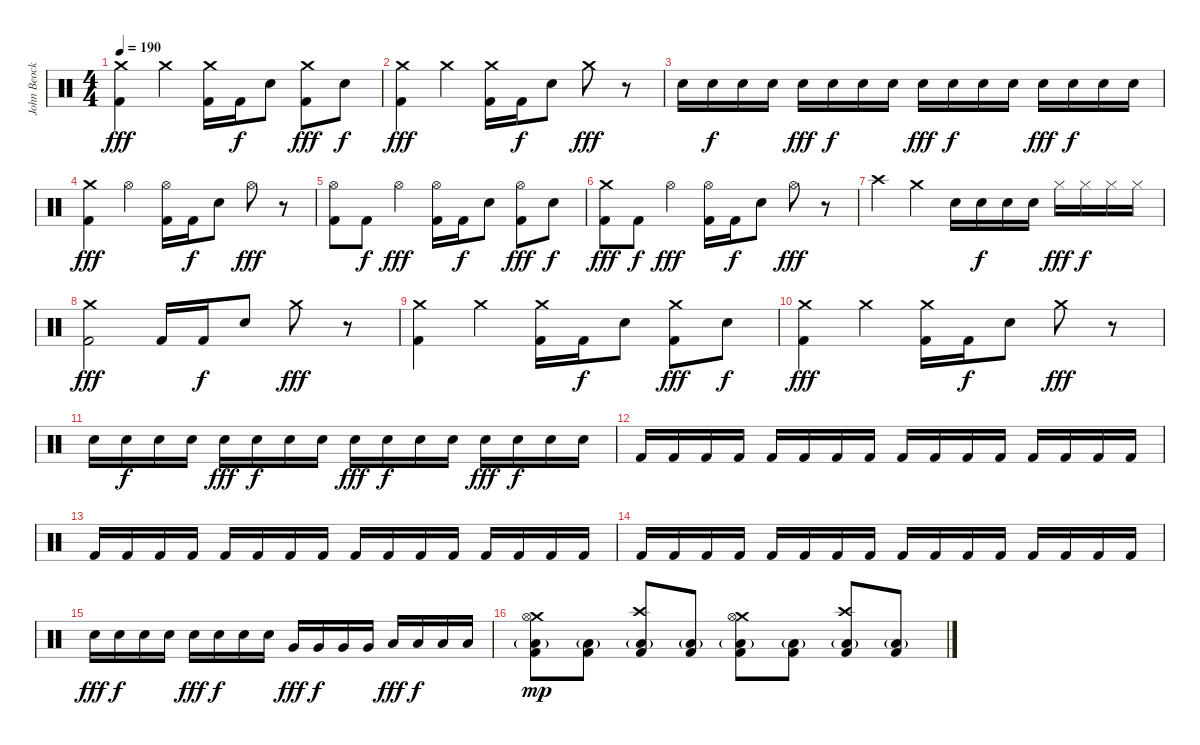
\track ("John Beocklin (Drums)" "John Beock") {instrument percussion}
\staff {score}
\articulation defaults
\ts (4 4)
\tempo 190
\clef neutral
\ks c
("Crash medium (hit)" "Kick (hit) 2").4{dy fff} "Crash medium (hit)".4 ("Crash medium (hit)" "Kick (hit) 2").16 "Kick (hit) 2".16{dy f} "Snare (hit) 2".8 ("Crash medium (hit)" "Kick (hit) 2").8{dy fff} "Snare (hit) 2".8{dy f} |
("Crash medium (hit)" "Kick (hit) 2").4{dy fff} "Crash medium (hit)".4 ("Crash medium (hit)" "Kick (hit) 2").16 "Kick (hit) 2".16{dy f} "Snare (hit) 2".8 "Crash medium (hit)".8{dy fff} r.8 |
"Snare (hit) 2".16 "Snare (hit) 2".16{dy f} "Snare (hit) 2".16 "Snare (hit) 2".16 "Snare (hit) 2".16{dy fff} "Snare (hit) 2".16{dy f} "Snare (hit) 2".16 "Snare (hit) 2".16 "Snare (hit) 2".16{dy fff} "Snare (hit) 2".16{dy f} "Snare (hit) 2".16 "Snare (hit) 2".16 "Snare (hit) 2".16{dy fff} "Snare (hit) 2".16{dy f} "Snare (hit) 2".16 "Snare (hit) 2".16 |
("Crash medium (hit)" "Kick (hit) 2").4{dy fff} "Hi-Hat (open)".4 ("Hi-Hat (open)" "Kick (hit) 2").16 "Kick (hit) 2".16{dy f} "Snare (hit) 2".8 "Hi-Hat (open)".8{dy fff} r.8 |
("Hi-Hat (open)" "Kick (hit) 2").8 "Kick (hit) 2".8{dy f} "Hi-Hat (open)".4{dy fff} ("Hi-Hat (open)" "Kick (hit) 2").16 "Kick (hit) 2".16{dy f} "Snare (hit) 2".8 ("Hi-Hat (open)" "Kick (hit) 2").8{dy fff} "Snare (hit) 2".8{dy f} |
("Crash medium (hit)" "Kick (hit) 2").8{dy fff} "Kick (hit) 2".8{dy f} "Hi-Hat (open)".4{dy fff} ("Hi-Hat (open)" "Kick (hit) 2").16 "Kick (hit) 2".16{dy f} "Snare (hit) 2".8 "Hi-Hat (open)".8{dy fff} r.8 |
"Crash high (hit)".4 "Crash medium (hit)".4 "Snare (hit) 2".16 "Snare (hit) 2".16{dy f} "Snare (hit) 2".16 "Snare (hit) 2".16 "Hi-Hat (closed)".16{dy fff} "Hi-Hat (closed)".16{dy f} "Hi-Hat (closed)".16 "Hi-Hat (closed)".16 |
("Crash medium (hit)" "Kick (hit) 2").2{dy fff} "Kick (hit) 2".16 "Kick (hit) 2".16{dy f} "Snare (hit) 2".8 "Crash medium (hit)".8{dy fff} r.8 |
("Crash medium (hit)" "Kick (hit) 2").4 "Crash medium (hit)".4 ("Crash medium (hit)" "Kick (hit) 2").16 "Kick (hit) 2".16{dy f} "Snare (hit) 2".8 ("Crash medium (hit)" "Kick (hit) 2").8{dy fff} "Snare (hit) 2".8{dy f} |
("Crash medium (hit)" "Kick (hit) 2").4{dy fff} "Crash medium (hit)".4 ("Crash medium (hit)" "Kick (hit) 2").16 "Kick (hit) 2".16{dy f} "Snare (hit) 2".8 "Crash medium (hit)".8{dy fff} r.8 |
"Snare (hit) 2".16 "Snare (hit) 2".16{dy f} "Snare (hit) 2".16 "Snare (hit) 2".16 "Snare (hit) 2".16{dy fff} "Snare (hit) 2".16{dy f} "Snare (hit) 2".16 "Snare (hit) 2".16 "Snare (hit) 2".16{dy fff} "Snare (hit) 2".16{dy f} "Snare (hit) 2".16 "Snare (hit) 2".16 "Snare (hit) 2".16{dy fff} "Snare (hit) 2".16{dy f} "Snare (hit) 2".16 "Snare (hit) 2".16 |
"Kick (hit) 2".16 "Kick (hit) 2".16 "Kick (hit) 2".16 "Kick (hit) 2".16 "Kick (hit) 2".16 "Kick (hit) 2".16 "Kick (hit) 2".16 "Kick (hit) 2".16 "Kick (hit) 2".16 "Kick (hit) 2".16 "Kick (hit) 2".16 "Kick (hit) 2".16 "Kick (hit) 2".16 "Kick (hit) 2".16 "Kick (hit) 2".16 "Kick (hit) 2".16 |
"Kick (hit) 2".16 "Kick (hit) 2".16 "Kick (hit) 2".16 "Kick (hit) 2".16 "Kick (hit) 2".16 "Kick (hit) 2".16 "Kick (hit) 2".16 "Kick (hit) 2".16 "Kick (hit) 2".16 "Kick (hit) 2".16 "Kick (hit) 2".16 "Kick (hit) 2".16 "Kick (hit) 2".16 "Kick (hit) 2".16 "Kick (hit) 2".16 "Kick (hit) 2".16 |
"Kick (hit) 2".16 "Kick (hit) 2".16 "Kick (hit) 2".16 "Kick (hit) 2".16 "Kick (hit) 2".16 "Kick (hit) 2".16 "Kick (hit) 2".16 "Kick (hit) 2".16 "Kick (hit) 2".16 "Kick (hit) 2".16 "Kick (hit) 2".16 "Kick (hit) 2".16 "Kick (hit) 2".16 "Kick (hit) 2".16 "Kick (hit) 2".16 "Kick (hit) 2".16 |
"Snare (hit) 2".16{dy fff} "Snare (hit) 2".16{dy f} "Snare (hit) 2".16 "Snare (hit) 2".16 "Snare (hit) 2".16{dy fff} "Snare (hit) 2".16{dy f} "Snare (hit) 2".16 "Snare (hit) 2".16 "Very Low Tom (hit)".16{dy fff} "Very Low Tom (hit)".16{dy f} "Very Low Tom (hit)".16 "Very Low Tom (hit)".16 "Low Floor Tom (hit)".16{dy fff} "Low Floor Tom (hit)".16{dy f} "Low Floor Tom (hit)".16 "Low Floor Tom (hit)".16 |
("Crash medium (hit)" "Kick (hit) 2" "Hi-Hat (open)" "Low Floor Tom (hit)"{g}).8{dy mp} ("Kick (hit) 2" "Low Floor Tom (hit)"{g}).8 ("Crash high (hit)" "Kick (hit) 2" "Low Floor Tom (hit)"{g}).8 ("Kick (hit) 2" "Low Floor Tom (hit)"{g}).8 ("Crash medium (hit)" "Kick (hit) 2" "Hi-Hat (open)" "Low Floor Tom (hit)"{g}).8 ("Kick (hit) 2" "Low Floor Tom (hit)"{g}).8 ("Crash high (hit)" "Kick (hit) 2" "Low Floor Tom (hit)"{g}).8 ("Kick (hit) 2" "Low Floor Tom (hit)"{g}).8
